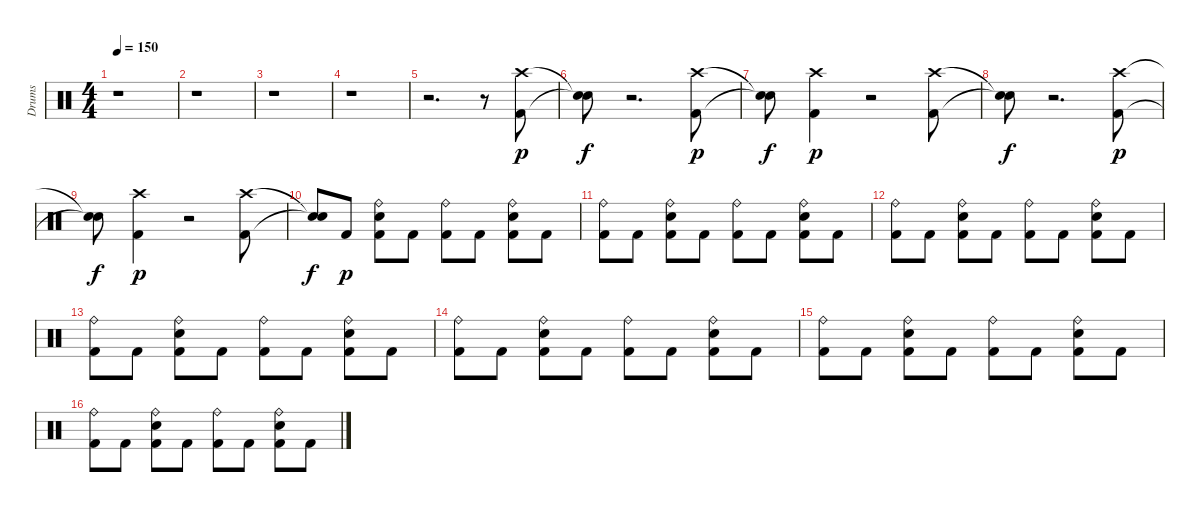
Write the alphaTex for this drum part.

\track ("Drums" "Drums") {instrument percussion}
\staff {score}
\articulation defaults
\ts (4 4)
\tempo 150
\clef neutral
\ks c
r.1{dy p} |
r.1 |
r.1 |
r.1 |
r.2{d} r.8 ("Kick (hit) 2" "Crash high (hit)").8 |
("Snare (hit)"{t} "Snare (hit)"{t}).8{dy f} r.2{d} ("Kick (hit) 2" "Crash high (hit)").8{dy p} |
("Snare (hit)"{t} "Snare (hit)"{t}).8{dy f} ("Kick (hit) 2" "Crash high (hit)").4{dy p} r.2 ("Kick (hit) 2" "Crash high (hit)").8 |
("Snare (hit)"{t} "Snare (hit)"{t}).8{dy f} r.2{d} ("Kick (hit) 2" "Crash high (hit)").8{dy p} |
("Snare (hit)"{t} "Snare (hit)"{t}).8{dy f} ("Kick (hit) 2" "Crash high (hit)").4{dy p} r.2 ("Kick (hit) 2" "Crash high (hit)").8 |
("Snare (hit)"{t} "Snare (hit)"{t}).8{dy f} "Kick (hit) 2".8{dy p} ("Kick (hit) 2" "Snare (hit) 2" "Ride (bell)").8 "Kick (hit) 2".8 ("Kick (hit) 2" "Ride (bell)").8 "Kick (hit) 2".8 ("Kick (hit) 2" "Snare (hit) 2" "Ride (bell)").8 "Kick (hit) 2".8 |
("Kick (hit) 2" "Ride (bell)").8 "Kick (hit) 2".8 ("Kick (hit) 2" "Snare (hit) 2" "Ride (bell)").8 "Kick (hit) 2".8 ("Kick (hit) 2" "Ride (bell)").8 "Kick (hit) 2".8 ("Kick (hit) 2" "Snare (hit) 2" "Ride (bell)").8 "Kick (hit) 2".8 |
("Kick (hit) 2" "Ride (bell)").8 "Kick (hit) 2".8 ("Kick (hit) 2" "Snare (hit) 2" "Ride (bell)").8 "Kick (hit) 2".8 ("Kick (hit) 2" "Ride (bell)").8 "Kick (hit) 2".8 ("Kick (hit) 2" "Snare (hit) 2" "Ride (bell)").8 "Kick (hit) 2".8 |
("Kick (hit) 2" "Ride (bell)").8 "Kick (hit) 2".8 ("Kick (hit) 2" "Snare (hit) 2" "Ride (bell)").8 "Kick (hit) 2".8 ("Kick (hit) 2" "Ride (bell)").8 "Kick (hit) 2".8 ("Kick (hit) 2" "Snare (hit) 2" "Ride (bell)").8 "Kick (hit) 2".8 |
("Kick (hit) 2" "Ride (bell)").8 "Kick (hit) 2".8 ("Kick (hit) 2" "Snare (hit) 2" "Ride (bell)").8 "Kick (hit) 2".8 ("Kick (hit) 2" "Ride (bell)").8 "Kick (hit) 2".8 ("Kick (hit) 2" "Snare (hit) 2" "Ride (bell)").8 "Kick (hit) 2".8 |
("Kick (hit) 2" "Ride (bell)").8 "Kick (hit) 2".8 ("Kick (hit) 2" "Snare (hit) 2" "Ride (bell)").8 "Kick (hit) 2".8 ("Kick (hit) 2" "Ride (bell)").8 "Kick (hit) 2".8 ("Kick (hit) 2" "Snare (hit) 2" "Ride (bell)").8 "Kick (hit) 2".8 |
("Kick (hit) 2" "Ride (bell)").8 "Kick (hit) 2".8 ("Kick (hit) 2" "Snare (hit) 2" "Ride (bell)").8 "Kick (hit) 2".8 ("Kick (hit) 2" "Ride (bell)").8 "Kick (hit) 2".8 ("Kick (hit) 2" "Snare (hit) 2" "Ride (bell)").8 "Kick (hit) 2".8
